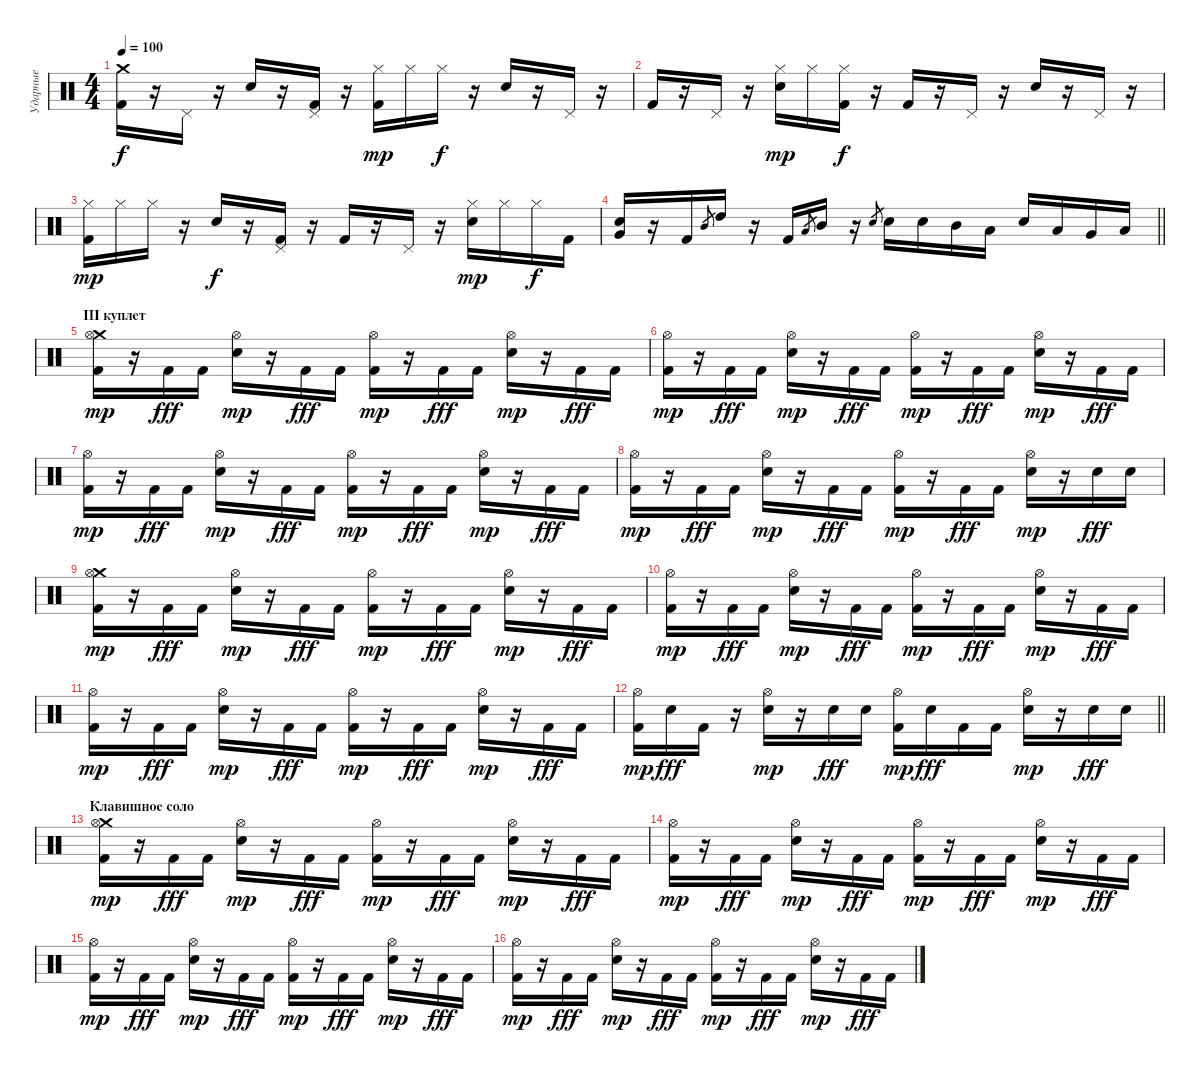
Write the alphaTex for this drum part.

\track ("Ударные" "Ударные") {instrument percussion}
\staff {score}
\articulation defaults
\ts (4 4)
\tempo 100
\clef neutral
\ks aminor
("Crash medium (hit)" "Kick (hit) 2").16{dy f} r.16 "Pedal Hi-Hat (hit)".16 r.16 "Electric Snare (hit)".16 r.16 ("Pedal Hi-Hat (hit)" "Kick (hit) 2").16 r.16 ("Hi-Hat (closed)" "Kick (hit) 2").16{dy mp} "Hi-Hat (closed)".16 "Hi-Hat (closed)".16{dy f} r.16 "Electric Snare (hit)".16 r.16 "Pedal Hi-Hat (hit)".16 r.16 |
"Kick (hit) 2".16 r.16 "Pedal Hi-Hat (hit)".16 r.16 ("Hi-Hat (closed)" "Electric Snare (hit)").16{dy mp} "Hi-Hat (closed)".16 ("Hi-Hat (closed)" "Kick (hit) 2").16{dy f} r.16 "Kick (hit) 2".16 r.16 "Pedal Hi-Hat (hit)".16 r.16 "Electric Snare (hit)".16 r.16 "Pedal Hi-Hat (hit)".16 r.16 |
("Hi-Hat (closed)" "Kick (hit) 2").16{dy mp} "Hi-Hat (closed)".16 "Hi-Hat (closed)".16 r.16 "Electric Snare (hit)".16{dy f} r.16 ("Pedal Hi-Hat (hit)" "Kick (hit) 2").16 r.16 "Kick (hit) 2".16 r.16 "Pedal Hi-Hat (hit)".16 r.16 ("Hi-Hat (closed)" "Electric Snare (hit)").16{dy mp} "Hi-Hat (closed)".16 "Hi-Hat (closed)".16{dy f} "Kick (hit) 2".16 |
\barLineRight lightlight
("Very Low Tom (hit)" "Electric Snare (hit)").16 r.16 "Kick (hit) 2".16 "Mid Tom (hit)".8{gr} "High Tom (hit)".16 r.16 "Kick (hit) 2".16 "Low Tom (hit)".8{gr} "Mid Tom (hit)".16 r.16 "Electric Snare (hit)".8{gr} "Electric Snare (hit)".16 "Electric Snare (hit)".16 "Mid Tom (hit)".16 "Low Tom (hit)".16 "Electric Snare (hit)".16 "Low Tom (hit)".16 "Very Low Tom (hit)".16 "Low Floor Tom (hit)".16 |
\section ("" "III куплет")
("Crash medium (hit)" "Kick (hit) 2" "Hi-Hat (open)").16{dy mp} r.16 "Kick (hit) 2".16{dy fff} "Kick (hit) 2".16 ("Electric Snare (hit)" "Hi-Hat (open)").16{dy mp} r.16 "Kick (hit) 2".16{dy fff} "Kick (hit) 2".16 ("Kick (hit) 2" "Hi-Hat (open)").16{dy mp} r.16 "Kick (hit) 2".16{dy fff} "Kick (hit) 2".16 ("Electric Snare (hit)" "Hi-Hat (open)").16{dy mp} r.16 "Kick (hit) 2".16{dy fff} "Kick (hit) 2".16 |
("Kick (hit) 2" "Hi-Hat (open)").16{dy mp} r.16 "Kick (hit) 2".16{dy fff} "Kick (hit) 2".16 ("Electric Snare (hit)" "Hi-Hat (open)").16{dy mp} r.16 "Kick (hit) 2".16{dy fff} "Kick (hit) 2".16 ("Kick (hit) 2" "Hi-Hat (open)").16{dy mp} r.16 "Kick (hit) 2".16{dy fff} "Kick (hit) 2".16 ("Electric Snare (hit)" "Hi-Hat (open)").16{dy mp} r.16 "Kick (hit) 2".16{dy fff} "Kick (hit) 2".16 |
("Kick (hit) 2" "Hi-Hat (open)").16{dy mp} r.16 "Kick (hit) 2".16{dy fff} "Kick (hit) 2".16 ("Electric Snare (hit)" "Hi-Hat (open)").16{dy mp} r.16 "Kick (hit) 2".16{dy fff} "Kick (hit) 2".16 ("Kick (hit) 2" "Hi-Hat (open)").16{dy mp} r.16 "Kick (hit) 2".16{dy fff} "Kick (hit) 2".16 ("Electric Snare (hit)" "Hi-Hat (open)").16{dy mp} r.16 "Kick (hit) 2".16{dy fff} "Kick (hit) 2".16 |
("Kick (hit) 2" "Hi-Hat (open)").16{dy mp} r.16 "Kick (hit) 2".16{dy fff} "Kick (hit) 2".16 ("Electric Snare (hit)" "Hi-Hat (open)").16{dy mp} r.16 "Kick (hit) 2".16{dy fff} "Kick (hit) 2".16 ("Kick (hit) 2" "Hi-Hat (open)").16{dy mp} r.16 "Kick (hit) 2".16{dy fff} "Kick (hit) 2".16 ("Electric Snare (hit)" "Hi-Hat (open)").16{dy mp} r.16 "Electric Snare (hit)".16{dy fff} "Electric Snare (hit)".16 |
("Crash medium (hit)" "Kick (hit) 2" "Hi-Hat (open)").16{dy mp} r.16 "Kick (hit) 2".16{dy fff} "Kick (hit) 2".16 ("Electric Snare (hit)" "Hi-Hat (open)").16{dy mp} r.16 "Kick (hit) 2".16{dy fff} "Kick (hit) 2".16 ("Kick (hit) 2" "Hi-Hat (open)").16{dy mp} r.16 "Kick (hit) 2".16{dy fff} "Kick (hit) 2".16 ("Electric Snare (hit)" "Hi-Hat (open)").16{dy mp} r.16 "Kick (hit) 2".16{dy fff} "Kick (hit) 2".16 |
("Kick (hit) 2" "Hi-Hat (open)").16{dy mp} r.16 "Kick (hit) 2".16{dy fff} "Kick (hit) 2".16 ("Electric Snare (hit)" "Hi-Hat (open)").16{dy mp} r.16 "Kick (hit) 2".16{dy fff} "Kick (hit) 2".16 ("Kick (hit) 2" "Hi-Hat (open)").16{dy mp} r.16 "Kick (hit) 2".16{dy fff} "Kick (hit) 2".16 ("Electric Snare (hit)" "Hi-Hat (open)").16{dy mp} r.16 "Kick (hit) 2".16{dy fff} "Kick (hit) 2".16 |
("Kick (hit) 2" "Hi-Hat (open)").16{dy mp} r.16 "Kick (hit) 2".16{dy fff} "Kick (hit) 2".16 ("Electric Snare (hit)" "Hi-Hat (open)").16{dy mp} r.16 "Kick (hit) 2".16{dy fff} "Kick (hit) 2".16 ("Kick (hit) 2" "Hi-Hat (open)").16{dy mp} r.16 "Kick (hit) 2".16{dy fff} "Kick (hit) 2".16 ("Electric Snare (hit)" "Hi-Hat (open)").16{dy mp} r.16 "Kick (hit) 2".16{dy fff} "Kick (hit) 2".16 |
\barLineRight lightlight
("Kick (hit) 2" "Hi-Hat (open)").16{dy mp} "Electric Snare (hit)".16{dy fff} "Kick (hit) 2".16 r.16 ("Electric Snare (hit)" "Hi-Hat (open)").16{dy mp} r.16 "Electric Snare (hit)".16{dy fff} "Electric Snare (hit)".16 ("Kick (hit) 2" "Hi-Hat (open)").16{dy mp} "Electric Snare (hit)".16{dy fff} "Kick (hit) 2".16 "Kick (hit) 2".16 ("Electric Snare (hit)" "Hi-Hat (open)").16{dy mp} r.16 "Electric Snare (hit)".16{dy fff} "Electric Snare (hit)".16 |
\section ("" "Клавишное соло")
("Crash medium (hit)" "Kick (hit) 2" "Hi-Hat (open)").16{dy mp} r.16 "Kick (hit) 2".16{dy fff} "Kick (hit) 2".16 ("Electric Snare (hit)" "Hi-Hat (open)").16{dy mp} r.16 "Kick (hit) 2".16{dy fff} "Kick (hit) 2".16 ("Kick (hit) 2" "Hi-Hat (open)").16{dy mp} r.16 "Kick (hit) 2".16{dy fff} "Kick (hit) 2".16 ("Electric Snare (hit)" "Hi-Hat (open)").16{dy mp} r.16 "Kick (hit) 2".16{dy fff} "Kick (hit) 2".16 |
("Kick (hit) 2" "Hi-Hat (open)").16{dy mp} r.16 "Kick (hit) 2".16{dy fff} "Kick (hit) 2".16 ("Electric Snare (hit)" "Hi-Hat (open)").16{dy mp} r.16 "Kick (hit) 2".16{dy fff} "Kick (hit) 2".16 ("Kick (hit) 2" "Hi-Hat (open)").16{dy mp} r.16 "Kick (hit) 2".16{dy fff} "Kick (hit) 2".16 ("Electric Snare (hit)" "Hi-Hat (open)").16{dy mp} r.16 "Kick (hit) 2".16{dy fff} "Kick (hit) 2".16 |
("Kick (hit) 2" "Hi-Hat (open)").16{dy mp} r.16 "Kick (hit) 2".16{dy fff} "Kick (hit) 2".16 ("Electric Snare (hit)" "Hi-Hat (open)").16{dy mp} r.16 "Kick (hit) 2".16{dy fff} "Kick (hit) 2".16 ("Kick (hit) 2" "Hi-Hat (open)").16{dy mp} r.16 "Kick (hit) 2".16{dy fff} "Kick (hit) 2".16 ("Electric Snare (hit)" "Hi-Hat (open)").16{dy mp} r.16 "Kick (hit) 2".16{dy fff} "Kick (hit) 2".16 |
("Kick (hit) 2" "Hi-Hat (open)").16{dy mp} r.16 "Kick (hit) 2".16{dy fff} "Kick (hit) 2".16 ("Electric Snare (hit)" "Hi-Hat (open)").16{dy mp} r.16 "Kick (hit) 2".16{dy fff} "Kick (hit) 2".16 ("Kick (hit) 2" "Hi-Hat (open)").16{dy mp} r.16 "Kick (hit) 2".16{dy fff} "Kick (hit) 2".16 ("Electric Snare (hit)" "Hi-Hat (open)").16{dy mp} r.16 "Kick (hit) 2".16{dy fff} "Kick (hit) 2".16
